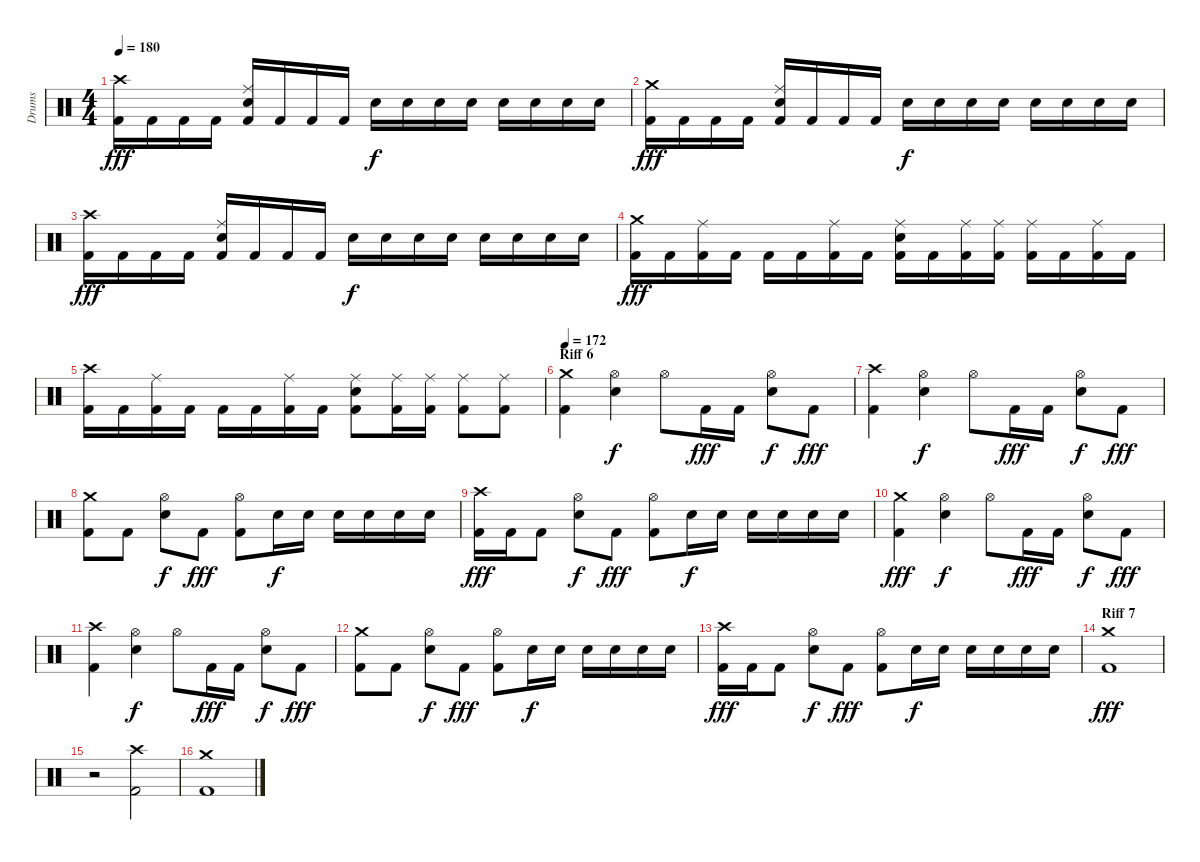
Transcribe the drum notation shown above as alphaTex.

\track ("Drums" "Drums") {instrument percussion}
\staff {score}
\articulation defaults
\ts (4 4)
\tempo 180
\clef neutral
\ks c
("Crash high (hit)" "Kick (hit) 2").16{dy fff} "Kick (hit) 2".16 "Kick (hit) 2".16 "Kick (hit) 2".16 ("Ride (middle)" "Electric Snare (hit)" "Kick (hit) 2").16 "Kick (hit) 2".16 "Kick (hit) 2".16 "Kick (hit) 2".16 "Electric Snare (hit)".16{dy f} "Electric Snare (hit)".16 "Electric Snare (hit)".16 "Electric Snare (hit)".16 "Electric Snare (hit)".16 "Electric Snare (hit)".16 "Electric Snare (hit)".16 "Electric Snare (hit)".16 |
("Crash medium (hit)" "Kick (hit) 2").16{dy fff} "Kick (hit) 2".16 "Kick (hit) 2".16 "Kick (hit) 2".16 ("Ride (middle)" "Electric Snare (hit)" "Kick (hit) 2").16 "Kick (hit) 2".16 "Kick (hit) 2".16 "Kick (hit) 2".16 "Electric Snare (hit)".16{dy f} "Electric Snare (hit)".16 "Electric Snare (hit)".16 "Electric Snare (hit)".16 "Electric Snare (hit)".16 "Electric Snare (hit)".16 "Electric Snare (hit)".16 "Electric Snare (hit)".16 |
("Crash high (hit)" "Kick (hit) 2").16{dy fff} "Kick (hit) 2".16 "Kick (hit) 2".16 "Kick (hit) 2".16 ("Ride (middle)" "Electric Snare (hit)" "Kick (hit) 2").16 "Kick (hit) 2".16 "Kick (hit) 2".16 "Kick (hit) 2".16 "Electric Snare (hit)".16{dy f} "Electric Snare (hit)".16 "Electric Snare (hit)".16 "Electric Snare (hit)".16 "Electric Snare (hit)".16 "Electric Snare (hit)".16 "Electric Snare (hit)".16 "Electric Snare (hit)".16 |
("Crash medium (hit)" "Kick (hit) 2").16{dy fff} "Kick (hit) 2".16 ("Ride (middle)" "Kick (hit) 2").16 "Kick (hit) 2".16 "Kick (hit) 2".16 "Kick (hit) 2".16 ("Ride (middle)" "Kick (hit) 2").16 "Kick (hit) 2".16 ("Ride (middle)" "Electric Snare (hit)" "Kick (hit) 2").16 "Kick (hit) 2".16 ("Ride (middle)" "Kick (hit) 2").16 ("Ride (middle)" "Kick (hit) 2").16 ("Ride (middle)" "Kick (hit) 2").16 "Kick (hit) 2".16 ("Ride (middle)" "Kick (hit) 2").16 "Kick (hit) 2".16 |
("Crash high (hit)" "Kick (hit) 2").16 "Kick (hit) 2".16 ("Ride (middle)" "Kick (hit) 2").16 "Kick (hit) 2".16 "Kick (hit) 2".16 "Kick (hit) 2".16 ("Ride (middle)" "Kick (hit) 2").16 "Kick (hit) 2".16 ("Ride (middle)" "Electric Snare (hit)" "Kick (hit) 2").8 ("Ride (middle)" "Kick (hit) 2").16 ("Ride (middle)" "Kick (hit) 2").16 ("Ride (middle)" "Kick (hit) 2").8 ("Ride (middle)" "Kick (hit) 2").8 |
\section ("" "Riff 6")
\tempo 172
("Crash medium (hit)" "Kick (hit) 2").4 ("Hi-Hat (open)" "Electric Snare (hit)").4{dy f} "Hi-Hat (open)".8 "Kick (hit) 2".16{dy fff} "Kick (hit) 2".16 ("Hi-Hat (open)" "Electric Snare (hit)").8{dy f} "Kick (hit) 2".8{dy fff} |
("Crash high (hit)" "Kick (hit) 2").4 ("Hi-Hat (open)" "Electric Snare (hit)").4{dy f} "Hi-Hat (open)".8 "Kick (hit) 2".16{dy fff} "Kick (hit) 2".16 ("Hi-Hat (open)" "Electric Snare (hit)").8{dy f} "Kick (hit) 2".8{dy fff} |
("Crash medium (hit)" "Kick (hit) 2").8 "Kick (hit) 2".8 ("Hi-Hat (open)" "Electric Snare (hit)").8{dy f} "Kick (hit) 2".8{dy fff} ("Hi-Hat (open)" "Kick (hit) 2").8 "Electric Snare (hit)".16{dy f} "Electric Snare (hit)".16 "Electric Snare (hit)".16 "Electric Snare (hit)".16 "Electric Snare (hit)".16 "Electric Snare (hit)".16 |
("Crash high (hit)" "Kick (hit) 2").16{dy fff} "Kick (hit) 2".16 "Kick (hit) 2".8 ("Hi-Hat (open)" "Electric Snare (hit)").8{dy f} "Kick (hit) 2".8{dy fff} ("Hi-Hat (open)" "Kick (hit) 2").8 "Electric Snare (hit)".16{dy f} "Electric Snare (hit)".16 "Electric Snare (hit)".16 "Electric Snare (hit)".16 "Electric Snare (hit)".16 "Electric Snare (hit)".16 |
("Crash medium (hit)" "Kick (hit) 2").4{dy fff} ("Hi-Hat (open)" "Electric Snare (hit)").4{dy f} "Hi-Hat (open)".8 "Kick (hit) 2".16{dy fff} "Kick (hit) 2".16 ("Hi-Hat (open)" "Electric Snare (hit)").8{dy f} "Kick (hit) 2".8{dy fff} |
("Crash high (hit)" "Kick (hit) 2").4 ("Hi-Hat (open)" "Electric Snare (hit)").4{dy f} "Hi-Hat (open)".8 "Kick (hit) 2".16{dy fff} "Kick (hit) 2".16 ("Hi-Hat (open)" "Electric Snare (hit)").8{dy f} "Kick (hit) 2".8{dy fff} |
("Crash medium (hit)" "Kick (hit) 2").8 "Kick (hit) 2".8 ("Hi-Hat (open)" "Electric Snare (hit)").8{dy f} "Kick (hit) 2".8{dy fff} ("Hi-Hat (open)" "Kick (hit) 2").8 "Electric Snare (hit)".16{dy f} "Electric Snare (hit)".16 "Electric Snare (hit)".16 "Electric Snare (hit)".16 "Electric Snare (hit)".16 "Electric Snare (hit)".16 |
("Crash high (hit)" "Kick (hit) 2").16{dy fff} "Kick (hit) 2".16 "Kick (hit) 2".8 ("Hi-Hat (open)" "Electric Snare (hit)").8{dy f} "Kick (hit) 2".8{dy fff} ("Hi-Hat (open)" "Kick (hit) 2").8 "Electric Snare (hit)".16{dy f} "Electric Snare (hit)".16 "Electric Snare (hit)".16 "Electric Snare (hit)".16 "Electric Snare (hit)".16 "Electric Snare (hit)".16 |
\section ("" "Riff 7")
("Crash medium (hit)" "Kick (hit) 2").1{dy fff} |
r.2 ("Crash high (hit)" "Kick (hit) 2").2 |
("Crash medium (hit)" "Kick (hit) 2").1
